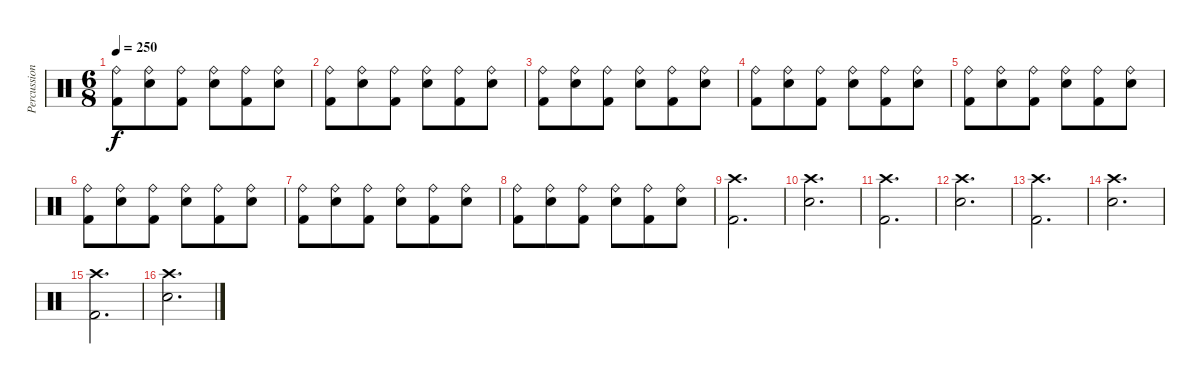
\track ("Percussion" "Percussion") {instrument percussion}
\staff {score}
\articulation defaults
\ts (6 8)
\tempo 250
\clef neutral
\ks c
("Ride (bell)" "Kick (hit) 2").8{dy f} ("Ride (bell)" "Electric Snare (hit)").8 ("Ride (bell)" "Kick (hit) 2").8 ("Ride (bell)" "Electric Snare (hit)").8 ("Ride (bell)" "Kick (hit) 2").8 ("Ride (bell)" "Electric Snare (hit)").8 |
("Ride (bell)" "Kick (hit) 2").8 ("Ride (bell)" "Electric Snare (hit)").8 ("Ride (bell)" "Kick (hit) 2").8 ("Ride (bell)" "Electric Snare (hit)").8 ("Ride (bell)" "Kick (hit) 2").8 ("Ride (bell)" "Electric Snare (hit)").8 |
("Ride (bell)" "Kick (hit) 2").8 ("Ride (bell)" "Electric Snare (hit)").8 ("Ride (bell)" "Kick (hit) 2").8 ("Ride (bell)" "Electric Snare (hit)").8 ("Ride (bell)" "Kick (hit) 2").8 ("Ride (bell)" "Electric Snare (hit)").8 |
("Ride (bell)" "Kick (hit) 2").8 ("Ride (bell)" "Electric Snare (hit)").8 ("Ride (bell)" "Kick (hit) 2").8 ("Ride (bell)" "Electric Snare (hit)").8 ("Ride (bell)" "Kick (hit) 2").8 ("Ride (bell)" "Electric Snare (hit)").8 |
("Ride (bell)" "Kick (hit) 2").8 ("Ride (bell)" "Electric Snare (hit)").8 ("Ride (bell)" "Kick (hit) 2").8 ("Ride (bell)" "Electric Snare (hit)").8 ("Ride (bell)" "Kick (hit) 2").8 ("Ride (bell)" "Electric Snare (hit)").8 |
("Ride (bell)" "Kick (hit) 2").8 ("Ride (bell)" "Electric Snare (hit)").8 ("Ride (bell)" "Kick (hit) 2").8 ("Ride (bell)" "Electric Snare (hit)").8 ("Ride (bell)" "Kick (hit) 2").8 ("Ride (bell)" "Electric Snare (hit)").8 |
("Ride (bell)" "Kick (hit) 2").8 ("Ride (bell)" "Electric Snare (hit)").8 ("Ride (bell)" "Kick (hit) 2").8 ("Ride (bell)" "Electric Snare (hit)").8 ("Ride (bell)" "Kick (hit) 2").8 ("Ride (bell)" "Electric Snare (hit)").8 |
("Ride (bell)" "Kick (hit) 2").8 ("Ride (bell)" "Electric Snare (hit)").8 ("Ride (bell)" "Kick (hit) 2").8 ("Ride (bell)" "Electric Snare (hit)").8 ("Ride (bell)" "Kick (hit) 2").8 ("Ride (bell)" "Electric Snare (hit)").8 |
("Crash high (hit)" "Kick (hit) 2").2{d} |
("Crash high (hit)" "Electric Snare (hit)").2{d} |
("Crash high (hit)" "Kick (hit) 2").2{d} |
("Crash high (hit)" "Electric Snare (hit)").2{d} |
("Crash high (hit)" "Kick (hit) 2").2{d} |
("Crash high (hit)" "Electric Snare (hit)").2{d} |
("Crash high (hit)" "Kick (hit) 2").2{d} |
("Crash high (hit)" "Electric Snare (hit)").2{d}
